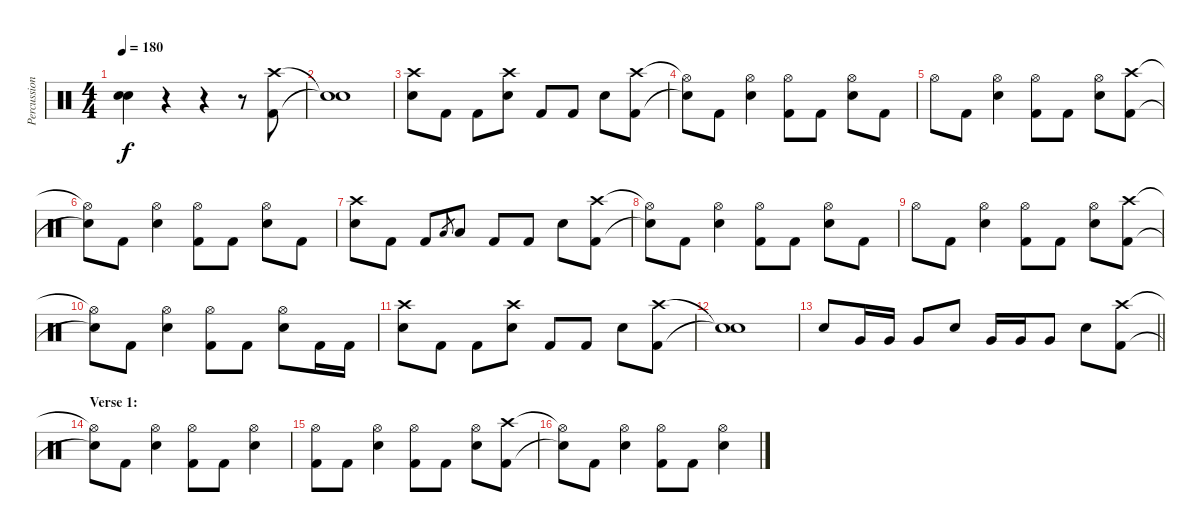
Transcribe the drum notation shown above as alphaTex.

\track ("Percussion" "Percussion") {instrument percussion}
\staff {score}
\articulation defaults
\ts (4 4)
\tempo 180
\clef neutral
\ks c
("Snare (hit)"{t} "Snare (hit)"{t}).4{dy f} r.4 r.4 r.8 ("Crash high (hit)" "Kick (hit) 2").8 |
("Snare (hit)"{t} "Snare (hit)"{t}).1 |
("Crash high (hit)" "Electric Snare (hit)").8 "Kick (hit) 2".8 "Kick (hit) 2".8 ("Crash high (hit)" "Electric Snare (hit)").8 "Kick (hit) 2".8 "Kick (hit) 2".8 "Electric Snare (hit)".8 ("Crash high (hit)" "Kick (hit) 2").8 |
("Hi-Hat (open)"{t} "Snare (hit)"{t}).8 "Kick (hit) 2".8 ("Hi-Hat (open)" "Electric Snare (hit)").4 ("Hi-Hat (open)" "Kick (hit) 2").8 "Kick (hit) 2".8 ("Hi-Hat (open)" "Electric Snare (hit)").8 "Kick (hit) 2".8 |
"Hi-Hat (open)".8 "Kick (hit) 2".8 ("Hi-Hat (open)" "Electric Snare (hit)").4 ("Hi-Hat (open)" "Kick (hit) 2").8 "Kick (hit) 2".8 ("Hi-Hat (open)" "Electric Snare (hit)").8 ("Crash high (hit)" "Kick (hit) 2").8 |
("Hi-Hat (open)"{t} "Snare (hit)"{t}).8 "Kick (hit) 2".8 ("Hi-Hat (open)" "Electric Snare (hit)").4 ("Hi-Hat (open)" "Kick (hit) 2").8 "Kick (hit) 2".8 ("Hi-Hat (open)" "Electric Snare (hit)").8 "Kick (hit) 2".8 |
("Crash high (hit)" "Electric Snare (hit)").8 "Kick (hit) 2".8 "Kick (hit) 2".8 "Low Tom (hit)".8{gr} "Low Tom (hit)".8 "Kick (hit) 2".8 "Kick (hit) 2".8 "Electric Snare (hit)".8 ("Crash high (hit)" "Kick (hit) 2").8 |
("Hi-Hat (open)"{t} "Snare (hit)"{t}).8 "Kick (hit) 2".8 ("Hi-Hat (open)" "Electric Snare (hit)").4 ("Hi-Hat (open)" "Kick (hit) 2").8 "Kick (hit) 2".8 ("Hi-Hat (open)" "Electric Snare (hit)").8 "Kick (hit) 2".8 |
"Hi-Hat (open)".8 "Kick (hit) 2".8 ("Hi-Hat (open)" "Electric Snare (hit)").4 ("Hi-Hat (open)" "Kick (hit) 2").8 "Kick (hit) 2".8 ("Hi-Hat (open)" "Electric Snare (hit)").8 ("Crash high (hit)" "Kick (hit) 2").8 |
("Hi-Hat (open)"{t} "Snare (hit)"{t}).8 "Kick (hit) 2".8 ("Hi-Hat (open)" "Electric Snare (hit)").4 ("Hi-Hat (open)" "Kick (hit) 2").8 "Kick (hit) 2".8 ("Hi-Hat (open)" "Electric Snare (hit)").8 "Kick (hit) 2".16 "Kick (hit) 2".16 |
("Crash high (hit)" "Electric Snare (hit)").8 "Kick (hit) 2".8 "Kick (hit) 2".8 ("Crash high (hit)" "Electric Snare (hit)").8 "Kick (hit) 2".8 "Kick (hit) 2".8 "Electric Snare (hit)".8 ("Crash high (hit)" "Kick (hit) 2").8 |
("Snare (hit)"{t} "Snare (hit)"{t}).1 |
\barLineRight lightlight "Electric Snare (hit)".8 "Very Low Tom (hit)".16 "Very Low Tom (hit)".16 "Very Low Tom (hit)".8 "Electric Snare (hit)".8 "Very Low Tom (hit)".16 "Very Low Tom (hit)".16 "Very Low Tom (hit)".8 "Electric Snare (hit)".8
("Crash high (hit)" "Kick (hit) 2").8 |
\section ("" "Verse 1:")
("Hi-Hat (open)"{t} "Snare (hit)"{t}).8 "Kick (hit) 2".8 ("Hi-Hat (open)" "Electric Snare (hit)").4 ("Hi-Hat (open)" "Kick (hit) 2").8 "Kick (hit) 2".8 ("Hi-Hat (open)" "Electric Snare (hit)").4 |
("Hi-Hat (open)" "Kick (hit) 2").8 "Kick (hit) 2".8 ("Hi-Hat (open)" "Electric Snare (hit)").4 ("Hi-Hat (open)" "Kick (hit) 2").8 "Kick (hit) 2".8 ("Hi-Hat (open)" "Electric Snare (hit)").8 ("Crash high (hit)" "Kick (hit) 2").8 |
("Hi-Hat (open)"{t} "Snare (hit)"{t}).8 "Kick (hit) 2".8 ("Hi-Hat (open)" "Electric Snare (hit)").4 ("Hi-Hat (open)" "Kick (hit) 2").8 "Kick (hit) 2".8 ("Hi-Hat (open)" "Electric Snare (hit)").4
